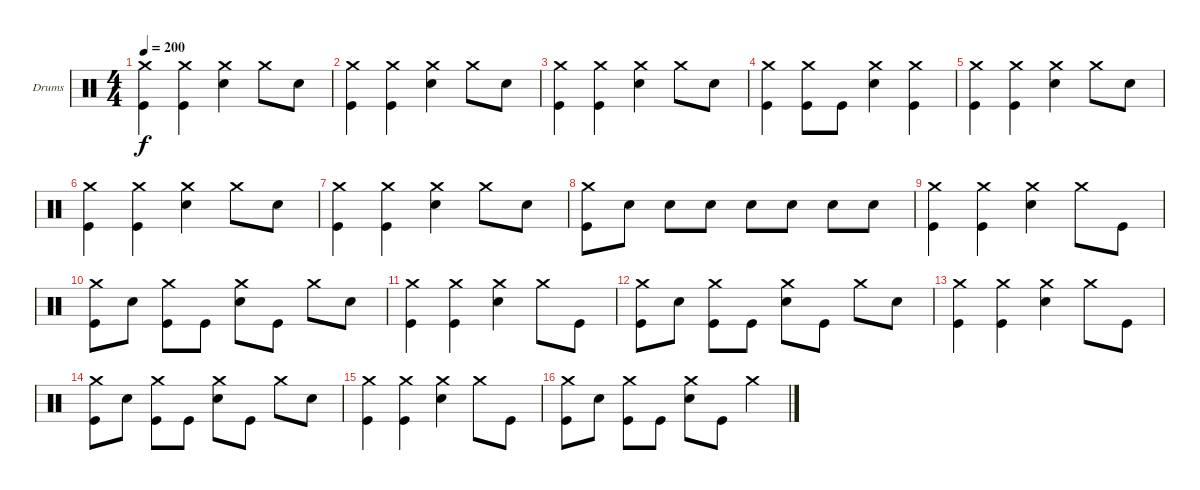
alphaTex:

\bracketExtendMode groupsimilarinstruments
\firstSystemTrackNameOrientation horizontal
\otherSystemsTrackNameOrientation horizontal
\track ("Drumkit" "Drums") {instrument percussion}
\staff {score}
\articulation defaults
\ts (4 4)
\tempo 200
\clef neutral
\ks c
("Crash medium (hit)" "Kick (hit)").4{dy f} ("Kick (hit)" "Crash medium (hit)").4 ("Snare (hit) 2" "Crash medium (hit)").4 "Crash medium (hit)".8 "Snare (hit) 2".8 |
("Kick (hit)" "Crash medium (hit)").4 ("Kick (hit)" "Crash medium (hit)").4 ("Snare (hit) 2" "Crash medium (hit)").4 "Crash medium (hit)".8 "Snare (hit) 2".8 |
("Kick (hit)" "Crash medium (hit)").4 ("Kick (hit)" "Crash medium (hit)").4 ("Snare (hit) 2" "Crash medium (hit)").4 "Crash medium (hit)".8 "Snare (hit) 2".8 |
("Kick (hit)" "Crash medium (hit)").4 ("Kick (hit)" "Crash medium (hit)").8 "Kick (hit)".8 ("Snare (hit) 2" "Crash medium (hit)").4 ("Kick (hit)" "Crash medium (hit)").4 |
("Crash medium (hit)" "Kick (hit)").4 ("Kick (hit)" "Crash medium (hit)").4 ("Snare (hit) 2" "Crash medium (hit)").4 "Crash medium (hit)".8 "Snare (hit) 2".8 |
("Kick (hit)" "Crash medium (hit)").4 ("Kick (hit)" "Crash medium (hit)").4 ("Snare (hit) 2" "Crash medium (hit)").4 "Crash medium (hit)".8 "Snare (hit) 2".8 |
("Kick (hit)" "Crash medium (hit)").4 ("Kick (hit)" "Crash medium (hit)").4 ("Snare (hit) 2" "Crash medium (hit)").4 "Crash medium (hit)".8 "Snare (hit) 2".8 |
("Kick (hit)" "Crash medium (hit)").8 "Snare (hit) 2".8 "Snare (hit) 2".8 "Snare (hit) 2".8 "Snare (hit) 2".8 "Snare (hit) 2".8 "Snare (hit) 2".8 "Snare (hit) 2".8 |
("Kick (hit)" "Crash medium (hit)").4 ("Kick (hit)" "Crash medium (hit)").4 ("Snare (hit) 2" "Crash medium (hit)").4 "Crash medium (hit)".8 "Kick (hit)".8 |
("Kick (hit)" "Crash medium (hit)").8 "Snare (hit) 2".8 ("Kick (hit)" "Crash medium (hit)").8 "Kick (hit)".8 ("Snare (hit) 2" "Crash medium (hit)").8 "Kick (hit)".8 "Crash medium (hit)".8 "Snare (hit) 2".8 |
("Kick (hit)" "Crash medium (hit)").4 ("Kick (hit)" "Crash medium (hit)").4 ("Snare (hit) 2" "Crash medium (hit)").4 "Crash medium (hit)".8 "Kick (hit)".8 |
("Kick (hit)" "Crash medium (hit)").8 "Snare (hit) 2".8 ("Kick (hit)" "Crash medium (hit)").8 "Kick (hit)".8 ("Snare (hit) 2" "Crash medium (hit)").8 "Kick (hit)".8 "Crash medium (hit)".8 "Snare (hit) 2".8 |
("Kick (hit)" "Crash medium (hit)").4 ("Kick (hit)" "Crash medium (hit)").4 ("Snare (hit) 2" "Crash medium (hit)").4 "Crash medium (hit)".8 "Kick (hit)".8 |
("Kick (hit)" "Crash medium (hit)").8 "Snare (hit) 2".8 ("Kick (hit)" "Crash medium (hit)").8 "Kick (hit)".8 ("Snare (hit) 2" "Crash medium (hit)").8 "Kick (hit)".8 "Crash medium (hit)".8 "Snare (hit) 2".8 |
("Kick (hit)" "Crash medium (hit)").4 ("Kick (hit)" "Crash medium (hit)").4 ("Snare (hit) 2" "Crash medium (hit)").4 "Crash medium (hit)".8 "Kick (hit)".8 |
("Kick (hit)" "Crash medium (hit)").8 "Snare (hit) 2".8 ("Kick (hit)" "Crash medium (hit)").8 "Kick (hit)".8 ("Snare (hit) 2" "Crash medium (hit)").8 "Kick (hit)".8 "Crash medium (hit)".4
